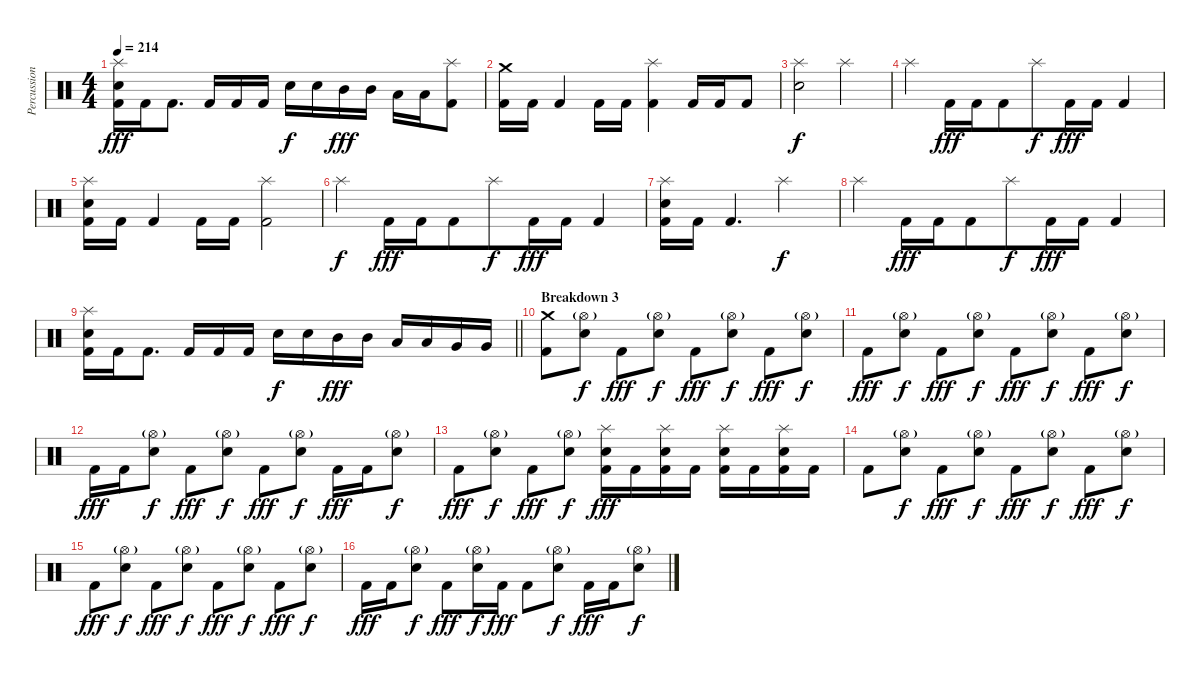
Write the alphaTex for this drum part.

\track ("Percussion" "Percussion") {instrument percussion}
\staff {score}
\articulation defaults
\ts (4 4)
\tempo 214
\clef neutral
\ks c
("Splash (hit)" "Electric Snare (hit)" "Kick (hit) 2").16{dy fff} "Kick (hit) 2".16 "Kick (hit) 2".8{d} "Kick (hit) 2".16 "Kick (hit) 2".16 "Kick (hit) 2".16 "Electric Snare (hit)".16{dy f} "Electric Snare (hit)".16 "Mid Tom (hit)".16{dy fff} "Mid Tom (hit)".16 "Low Tom (hit)".16 "Low Tom (hit)".16 ("Splash (hit)" "Kick (hit) 2").8 |
("Crash medium (hit)" "Kick (hit) 2").16 "Kick (hit) 2".16 "Kick (hit) 2".4 "Kick (hit) 2".16 "Kick (hit) 2".16{beam merge} ("Splash (hit)" "Kick (hit) 2").4 "Kick (hit) 2".16 "Kick (hit) 2".16 "Kick (hit) 2".8 |
("Splash (hit)" "Electric Snare (hit)").2{dy f beam merge} "Splash (hit)".2 |
"Splash (hit)".4 "Kick (hit) 2".16{dy fff} "Kick (hit) 2".16 "Kick (hit) 2".8{beam merge} "Splash (hit)".8{dy f} "Kick (hit) 2".16{dy fff} "Kick (hit) 2".16 "Kick (hit) 2".4 |
("Splash (hit)" "Electric Snare (hit)" "Kick (hit) 2").16 "Kick (hit) 2".16 "Kick (hit) 2".4 "Kick (hit) 2".16 "Kick (hit) 2".16{beam merge} ("Splash (hit)" "Kick (hit) 2").2 |
"Splash (hit)".4{dy f} "Kick (hit) 2".16{dy fff} "Kick (hit) 2".16 "Kick (hit) 2".8{beam merge} "Splash (hit)".8{dy f} "Kick (hit) 2".16{dy fff} "Kick (hit) 2".16 "Kick (hit) 2".4 |
("Splash (hit)" "Electric Snare (hit)" "Kick (hit) 2").16 "Kick (hit) 2".16 "Kick (hit) 2".4{d} "Splash (hit)".2{dy f} |
"Splash (hit)".4 "Kick (hit) 2".16{dy fff} "Kick (hit) 2".16 "Kick (hit) 2".8{beam merge} "Splash (hit)".8{dy f} "Kick (hit) 2".16{dy fff} "Kick (hit) 2".16 "Kick (hit) 2".4 |
\barLineRight lightlight
("Splash (hit)" "Electric Snare (hit)" "Kick (hit) 2").16 "Kick (hit) 2".16 "Kick (hit) 2".8{d} "Kick (hit) 2".16 "Kick (hit) 2".16 "Kick (hit) 2".16 "Electric Snare (hit)".16{dy f} "Electric Snare (hit)".16 "Mid Tom (hit)".16{dy fff} "Mid Tom (hit)".16 "Low Tom (hit)".16 "Low Tom (hit)".16 "Very Low Tom (hit)".16 "Very Low Tom (hit)".16 |
\section ("" "Breakdown 3")
("Crash medium (hit)" "Kick (hit) 2").8 ("Hi-Hat (open)"{g} "Electric Snare (hit)").8{dy f} "Kick (hit) 2".8{dy fff} ("Hi-Hat (open)"{g} "Electric Snare (hit)").8{dy f} "Kick (hit) 2".8{dy fff} ("Hi-Hat (open)"{g} "Electric Snare (hit)").8{dy f} "Kick (hit) 2".8{dy fff} ("Hi-Hat (open)"{g} "Electric Snare (hit)").8{dy f} |
"Kick (hit) 2".8{dy fff} ("Hi-Hat (open)"{g} "Electric Snare (hit)").8{dy f} "Kick (hit) 2".8{dy fff} ("Hi-Hat (open)"{g} "Electric Snare (hit)").8{dy f} "Kick (hit) 2".8{dy fff} ("Hi-Hat (open)"{g} "Electric Snare (hit)").8{dy f} "Kick (hit) 2".8{dy fff} ("Hi-Hat (open)"{g} "Electric Snare (hit)").8{dy f} |
"Kick (hit) 2".16{dy fff} "Kick (hit) 2".16 ("Hi-Hat (open)"{g} "Electric Snare (hit)").8{dy f} "Kick (hit) 2".8{dy fff} ("Hi-Hat (open)"{g} "Electric Snare (hit)").8{dy f} "Kick (hit) 2".8{dy fff} ("Hi-Hat (open)"{g} "Electric Snare (hit)").8{dy f} "Kick (hit) 2".16{dy fff} "Kick (hit) 2".16 ("Hi-Hat (open)"{g} "Electric Snare (hit)").8{dy f} |
"Kick (hit) 2".8{dy fff} ("Hi-Hat (open)"{g} "Electric Snare (hit)").8{dy f} "Kick (hit) 2".8{dy fff} ("Hi-Hat (open)"{g} "Electric Snare (hit)").8{dy f} ("Splash (hit)" "Electric Snare (hit)" "Kick (hit) 2").16{dy fff} "Kick (hit) 2".16 ("Splash (hit)" "Electric Snare (hit)" "Kick (hit) 2").16 "Kick (hit) 2".16 ("Splash (hit)" "Electric Snare (hit)" "Kick (hit) 2").16 "Kick (hit) 2".16 ("Splash (hit)" "Electric Snare (hit)" "Kick (hit) 2").16 "Kick (hit) 2".16 |
"Kick (hit) 2".8 ("Hi-Hat (open)"{g} "Electric Snare (hit)").8{dy f} "Kick (hit) 2".8{dy fff} ("Hi-Hat (open)"{g} "Electric Snare (hit)").8{dy f} "Kick (hit) 2".8{dy fff} ("Hi-Hat (open)"{g} "Electric Snare (hit)").8{dy f} "Kick (hit) 2".8{dy fff} ("Hi-Hat (open)"{g} "Electric Snare (hit)").8{dy f} |
"Kick (hit) 2".8{dy fff} ("Hi-Hat (open)"{g} "Electric Snare (hit)").8{dy f} "Kick (hit) 2".8{dy fff} ("Hi-Hat (open)"{g} "Electric Snare (hit)").8{dy f} "Kick (hit) 2".8{dy fff} ("Hi-Hat (open)"{g} "Electric Snare (hit)").8{dy f} "Kick (hit) 2".8{dy fff} ("Hi-Hat (open)"{g} "Electric Snare (hit)").8{dy f} |
"Kick (hit) 2".16{dy fff} "Kick (hit) 2".16 ("Hi-Hat (open)"{g} "Electric Snare (hit)").8{dy f} "Kick (hit) 2".8{dy fff} ("Hi-Hat (open)"{g} "Electric Snare (hit)").16{dy f} "Kick (hit) 2".16{dy fff} "Kick (hit) 2".8 ("Hi-Hat (open)"{g} "Electric Snare (hit)").8{dy f} "Kick (hit) 2".16{dy fff} "Kick (hit) 2".16 ("Hi-Hat (open)"{g} "Electric Snare (hit)").8{dy f}
